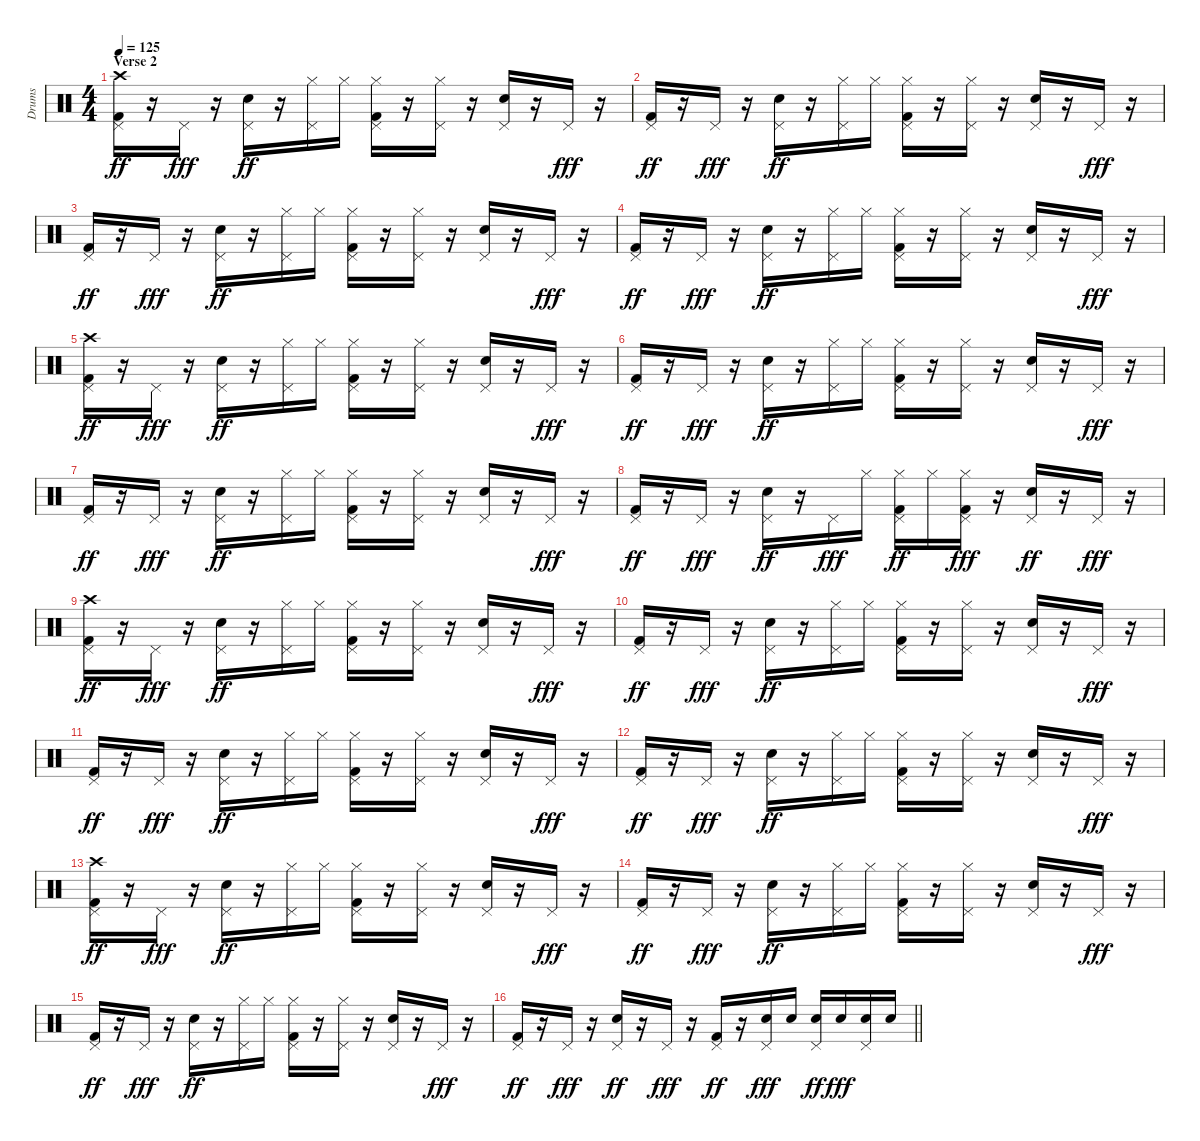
\track ("Drums " "Drums ") {instrument percussion}
\staff {score}
\articulation defaults
\ts (4 4)
\section ("" "Verse 2")
\tempo 125
\clef neutral
\ks c
("Crash high (hit)" "Pedal Hi-Hat (hit)" "Kick (hit) 2").16{dy ff} r.16 "Pedal Hi-Hat (hit)".16{dy fff} r.16 ("Pedal Hi-Hat (hit)" "Electric Snare (hit)").16{dy ff} r.16 ("Pedal Hi-Hat (hit)" "Hi-Hat (closed)").16 "Hi-Hat (closed)".16 ("Pedal Hi-Hat (hit)" "Hi-Hat (closed)" "Kick (hit) 2").16 r.16 ("Pedal Hi-Hat (hit)" "Hi-Hat (closed)").16 r.16 ("Pedal Hi-Hat (hit)" "Electric Snare (hit)").16 r.16 "Pedal Hi-Hat (hit)".16{dy fff} r.16 |
("Pedal Hi-Hat (hit)" "Kick (hit) 2").16{dy ff} r.16 "Pedal Hi-Hat (hit)".16{dy fff} r.16 ("Pedal Hi-Hat (hit)" "Electric Snare (hit)").16{dy ff} r.16 ("Pedal Hi-Hat (hit)" "Hi-Hat (closed)").16 "Hi-Hat (closed)".16 ("Pedal Hi-Hat (hit)" "Hi-Hat (closed)" "Kick (hit) 2").16 r.16 ("Pedal Hi-Hat (hit)" "Hi-Hat (closed)").16 r.16 ("Pedal Hi-Hat (hit)" "Electric Snare (hit)").16 r.16 "Pedal Hi-Hat (hit)".16{dy fff} r.16 |
("Pedal Hi-Hat (hit)" "Kick (hit) 2").16{dy ff} r.16 "Pedal Hi-Hat (hit)".16{dy fff} r.16 ("Pedal Hi-Hat (hit)" "Electric Snare (hit)").16{dy ff} r.16 ("Pedal Hi-Hat (hit)" "Hi-Hat (closed)").16 "Hi-Hat (closed)".16 ("Pedal Hi-Hat (hit)" "Hi-Hat (closed)" "Kick (hit) 2").16 r.16 ("Pedal Hi-Hat (hit)" "Hi-Hat (closed)").16 r.16 ("Pedal Hi-Hat (hit)" "Electric Snare (hit)").16 r.16 "Pedal Hi-Hat (hit)".16{dy fff} r.16 |
("Pedal Hi-Hat (hit)" "Kick (hit) 2").16{dy ff} r.16 "Pedal Hi-Hat (hit)".16{dy fff} r.16 ("Pedal Hi-Hat (hit)" "Electric Snare (hit)").16{dy ff} r.16 ("Pedal Hi-Hat (hit)" "Hi-Hat (closed)").16 "Hi-Hat (closed)".16 ("Pedal Hi-Hat (hit)" "Hi-Hat (closed)" "Kick (hit) 2").16 r.16 ("Pedal Hi-Hat (hit)" "Hi-Hat (closed)").16 r.16 ("Pedal Hi-Hat (hit)" "Electric Snare (hit)").16 r.16 "Pedal Hi-Hat (hit)".16{dy fff} r.16 |
("Crash high (hit)" "Pedal Hi-Hat (hit)" "Kick (hit) 2").16{dy ff} r.16 "Pedal Hi-Hat (hit)".16{dy fff} r.16 ("Pedal Hi-Hat (hit)" "Electric Snare (hit)").16{dy ff} r.16 ("Pedal Hi-Hat (hit)" "Hi-Hat (closed)").16 "Hi-Hat (closed)".16 ("Pedal Hi-Hat (hit)" "Hi-Hat (closed)" "Kick (hit) 2").16 r.16 ("Pedal Hi-Hat (hit)" "Hi-Hat (closed)").16 r.16 ("Pedal Hi-Hat (hit)" "Electric Snare (hit)").16 r.16 "Pedal Hi-Hat (hit)".16{dy fff} r.16 |
("Pedal Hi-Hat (hit)" "Kick (hit) 2").16{dy ff} r.16 "Pedal Hi-Hat (hit)".16{dy fff} r.16 ("Pedal Hi-Hat (hit)" "Electric Snare (hit)").16{dy ff} r.16 ("Pedal Hi-Hat (hit)" "Hi-Hat (closed)").16 "Hi-Hat (closed)".16 ("Pedal Hi-Hat (hit)" "Hi-Hat (closed)" "Kick (hit) 2").16 r.16 ("Pedal Hi-Hat (hit)" "Hi-Hat (closed)").16 r.16 ("Pedal Hi-Hat (hit)" "Electric Snare (hit)").16 r.16 "Pedal Hi-Hat (hit)".16{dy fff} r.16 |
("Pedal Hi-Hat (hit)" "Kick (hit) 2").16{dy ff} r.16 "Pedal Hi-Hat (hit)".16{dy fff} r.16 ("Pedal Hi-Hat (hit)" "Electric Snare (hit)").16{dy ff} r.16 ("Pedal Hi-Hat (hit)" "Hi-Hat (closed)").16 "Hi-Hat (closed)".16 ("Pedal Hi-Hat (hit)" "Hi-Hat (closed)" "Kick (hit) 2").16 r.16 ("Pedal Hi-Hat (hit)" "Hi-Hat (closed)").16 r.16 ("Pedal Hi-Hat (hit)" "Electric Snare (hit)").16 r.16 "Pedal Hi-Hat (hit)".16{dy fff} r.16 |
("Pedal Hi-Hat (hit)" "Kick (hit) 2").16{dy ff} r.16 "Pedal Hi-Hat (hit)".16{dy fff} r.16 ("Pedal Hi-Hat (hit)" "Electric Snare (hit)").16{dy ff} r.16 "Pedal Hi-Hat (hit)".16{dy fff} "Hi-Hat (closed)".16 ("Pedal Hi-Hat (hit)" "Hi-Hat (closed)" "Kick (hit) 2").16{dy ff} "Hi-Hat (closed)".16 ("Pedal Hi-Hat (hit)" "Hi-Hat (closed)" "Kick (hit) 2").16{dy fff} r.16 ("Pedal Hi-Hat (hit)" "Electric Snare (hit)").16{dy ff} r.16 "Pedal Hi-Hat (hit)".16{dy fff} r.16 |
("Crash high (hit)" "Pedal Hi-Hat (hit)" "Kick (hit) 2").16{dy ff} r.16 "Pedal Hi-Hat (hit)".16{dy fff} r.16 ("Pedal Hi-Hat (hit)" "Electric Snare (hit)").16{dy ff} r.16 ("Pedal Hi-Hat (hit)" "Hi-Hat (closed)").16 "Hi-Hat (closed)".16 ("Pedal Hi-Hat (hit)" "Hi-Hat (closed)" "Kick (hit) 2").16 r.16 ("Pedal Hi-Hat (hit)" "Hi-Hat (closed)").16 r.16 ("Pedal Hi-Hat (hit)" "Electric Snare (hit)").16 r.16 "Pedal Hi-Hat (hit)".16{dy fff} r.16 |
("Pedal Hi-Hat (hit)" "Kick (hit) 2").16{dy ff} r.16 "Pedal Hi-Hat (hit)".16{dy fff} r.16 ("Pedal Hi-Hat (hit)" "Electric Snare (hit)").16{dy ff} r.16 ("Pedal Hi-Hat (hit)" "Hi-Hat (closed)").16 "Hi-Hat (closed)".16 ("Pedal Hi-Hat (hit)" "Hi-Hat (closed)" "Kick (hit) 2").16 r.16 ("Pedal Hi-Hat (hit)" "Hi-Hat (closed)").16 r.16 ("Pedal Hi-Hat (hit)" "Electric Snare (hit)").16 r.16 "Pedal Hi-Hat (hit)".16{dy fff} r.16 |
("Pedal Hi-Hat (hit)" "Kick (hit) 2").16{dy ff} r.16 "Pedal Hi-Hat (hit)".16{dy fff} r.16 ("Pedal Hi-Hat (hit)" "Electric Snare (hit)").16{dy ff} r.16 ("Pedal Hi-Hat (hit)" "Hi-Hat (closed)").16 "Hi-Hat (closed)".16 ("Pedal Hi-Hat (hit)" "Hi-Hat (closed)" "Kick (hit) 2").16 r.16 ("Pedal Hi-Hat (hit)" "Hi-Hat (closed)").16 r.16 ("Pedal Hi-Hat (hit)" "Electric Snare (hit)").16 r.16 "Pedal Hi-Hat (hit)".16{dy fff} r.16 |
("Pedal Hi-Hat (hit)" "Kick (hit) 2").16{dy ff} r.16 "Pedal Hi-Hat (hit)".16{dy fff} r.16 ("Pedal Hi-Hat (hit)" "Electric Snare (hit)").16{dy ff} r.16 ("Pedal Hi-Hat (hit)" "Hi-Hat (closed)").16 "Hi-Hat (closed)".16 ("Pedal Hi-Hat (hit)" "Hi-Hat (closed)" "Kick (hit) 2").16 r.16 ("Pedal Hi-Hat (hit)" "Hi-Hat (closed)").16 r.16 ("Pedal Hi-Hat (hit)" "Electric Snare (hit)").16 r.16 "Pedal Hi-Hat (hit)".16{dy fff} r.16 |
("Crash high (hit)" "Pedal Hi-Hat (hit)" "Kick (hit) 2").16{dy ff} r.16 "Pedal Hi-Hat (hit)".16{dy fff} r.16 ("Pedal Hi-Hat (hit)" "Electric Snare (hit)").16{dy ff} r.16 ("Pedal Hi-Hat (hit)" "Hi-Hat (closed)").16 "Hi-Hat (closed)".16 ("Pedal Hi-Hat (hit)" "Hi-Hat (closed)" "Kick (hit) 2").16 r.16 ("Pedal Hi-Hat (hit)" "Hi-Hat (closed)").16 r.16 ("Pedal Hi-Hat (hit)" "Electric Snare (hit)").16 r.16 "Pedal Hi-Hat (hit)".16{dy fff} r.16 |
("Pedal Hi-Hat (hit)" "Kick (hit) 2").16{dy ff} r.16 "Pedal Hi-Hat (hit)".16{dy fff} r.16 ("Pedal Hi-Hat (hit)" "Electric Snare (hit)").16{dy ff} r.16 ("Pedal Hi-Hat (hit)" "Hi-Hat (closed)").16 "Hi-Hat (closed)".16 ("Pedal Hi-Hat (hit)" "Hi-Hat (closed)" "Kick (hit) 2").16 r.16 ("Pedal Hi-Hat (hit)" "Hi-Hat (closed)").16 r.16 ("Pedal Hi-Hat (hit)" "Electric Snare (hit)").16 r.16 "Pedal Hi-Hat (hit)".16{dy fff} r.16 |
("Pedal Hi-Hat (hit)" "Kick (hit) 2").16{dy ff} r.16 "Pedal Hi-Hat (hit)".16{dy fff} r.16 ("Pedal Hi-Hat (hit)" "Electric Snare (hit)").16{dy ff} r.16 ("Pedal Hi-Hat (hit)" "Hi-Hat (closed)").16 "Hi-Hat (closed)".16 ("Pedal Hi-Hat (hit)" "Hi-Hat (closed)" "Kick (hit) 2").16 r.16 ("Pedal Hi-Hat (hit)" "Hi-Hat (closed)").16 r.16 ("Pedal Hi-Hat (hit)" "Electric Snare (hit)").16 r.16 "Pedal Hi-Hat (hit)".16{dy fff} r.16 |
\barLineRight lightlight
("Pedal Hi-Hat (hit)" "Kick (hit) 2").16{dy ff} r.16 "Pedal Hi-Hat (hit)".16{dy fff} r.16 ("Pedal Hi-Hat (hit)" "Electric Snare (hit)").16{dy ff} r.16 "Pedal Hi-Hat (hit)".16{dy fff} r.16 ("Pedal Hi-Hat (hit)" "Kick (hit) 2").16{dy ff} r.16 ("Pedal Hi-Hat (hit)" "Electric Snare (hit)").16{dy fff} "Electric Snare (hit)".16 ("Pedal Hi-Hat (hit)" "Electric Snare (hit)").16{dy ff} "Electric Snare (hit)".16{dy fff} ("Pedal Hi-Hat (hit)" "Electric Snare (hit)").16 "Electric Snare (hit)".16
